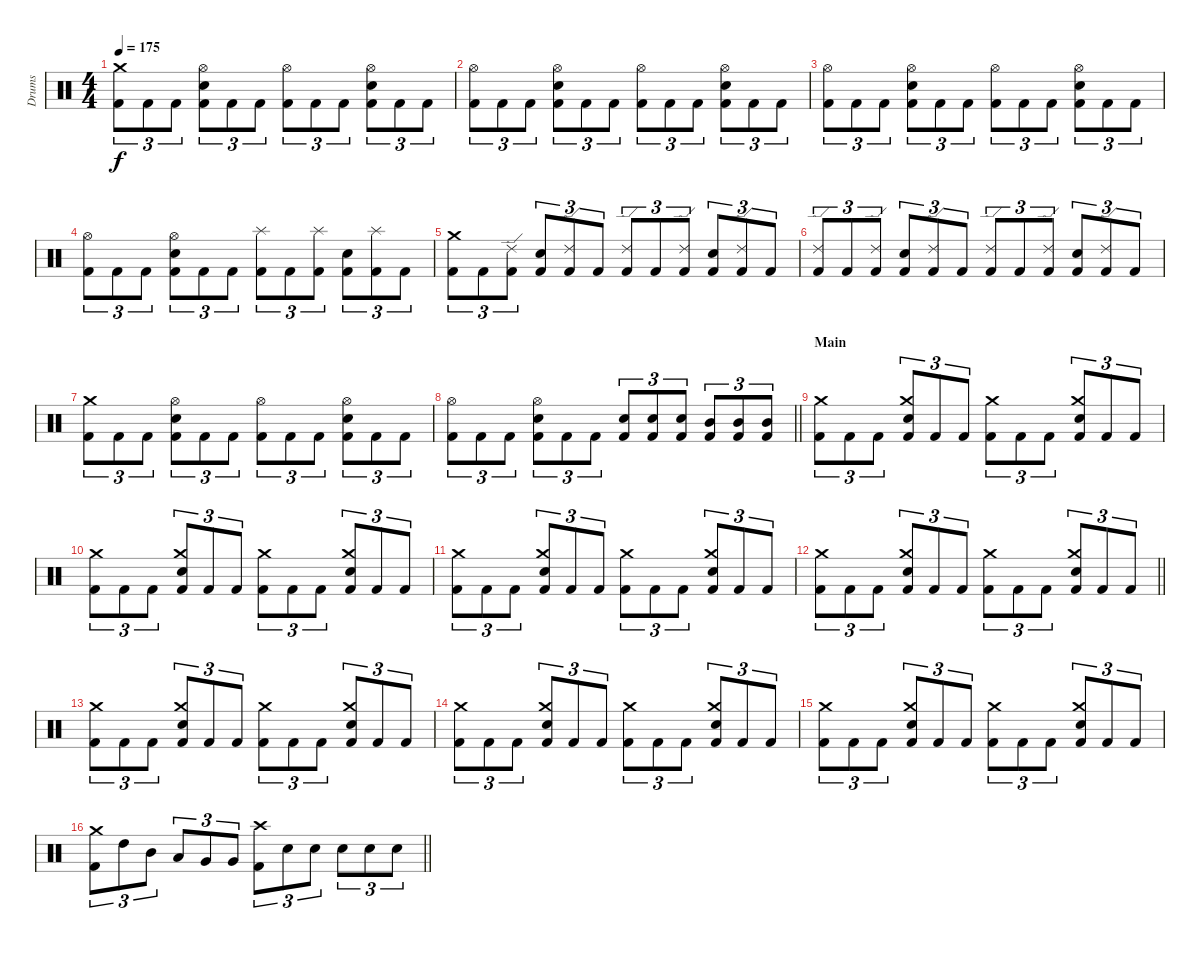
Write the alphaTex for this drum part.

\track ("Drums" "Drums") {instrument percussion}
\staff {score}
\articulation defaults
\ts (4 4)
\section ("" "")
\tempo 175
\clef neutral
\ks c
("Kick (hit) 2" "Crash medium (hit)").8{tu (3 2) dy f} "Kick (hit) 2".8{tu (3 2)} "Kick (hit) 2".8{tu (3 2)} ("Kick (hit) 2" "Snare (hit) 2" "Hi-Hat (open)").8{tu (3 2)} "Kick (hit) 2".8{tu (3 2)} "Kick (hit) 2".8{tu (3 2)} ("Kick (hit) 2" "Hi-Hat (open)").8{tu (3 2)} "Kick (hit) 2".8{tu (3 2)} "Kick (hit) 2".8{tu (3 2)} ("Kick (hit) 2" "Snare (hit) 2" "Hi-Hat (open)").8{tu (3 2)} "Kick (hit) 2".8{tu (3 2)} "Kick (hit) 2".8{tu (3 2)} |
("Kick (hit) 2" "Hi-Hat (open)").8{tu (3 2)} "Kick (hit) 2".8{tu (3 2)} "Kick (hit) 2".8{tu (3 2)} ("Kick (hit) 2" "Snare (hit) 2" "Hi-Hat (open)").8{tu (3 2)} "Kick (hit) 2".8{tu (3 2)} "Kick (hit) 2".8{tu (3 2)} ("Kick (hit) 2" "Hi-Hat (open)").8{tu (3 2)} "Kick (hit) 2".8{tu (3 2)} "Kick (hit) 2".8{tu (3 2)} ("Kick (hit) 2" "Snare (hit) 2" "Hi-Hat (open)").8{tu (3 2)} "Kick (hit) 2".8{tu (3 2)} "Kick (hit) 2".8{tu (3 2)} |
("Kick (hit) 2" "Hi-Hat (open)").8{tu (3 2)} "Kick (hit) 2".8{tu (3 2)} "Kick (hit) 2".8{tu (3 2)} ("Kick (hit) 2" "Snare (hit) 2" "Hi-Hat (open)").8{tu (3 2)} "Kick (hit) 2".8{tu (3 2)} "Kick (hit) 2".8{tu (3 2)} ("Kick (hit) 2" "Hi-Hat (open)").8{tu (3 2)} "Kick (hit) 2".8{tu (3 2)} "Kick (hit) 2".8{tu (3 2)} ("Kick (hit) 2" "Snare (hit) 2" "Hi-Hat (open)").8{tu (3 2)} "Kick (hit) 2".8{tu (3 2)} "Kick (hit) 2".8{tu (3 2)} |
("Kick (hit) 2" "Hi-Hat (open)").8{tu (3 2)} "Kick (hit) 2".8{tu (3 2)} "Kick (hit) 2".8{tu (3 2)} ("Kick (hit) 2" "Snare (hit) 2" "Hi-Hat (open)").8{tu (3 2)} "Kick (hit) 2".8{tu (3 2)} "Kick (hit) 2".8{tu (3 2)} ("Kick (hit) 2" "Splash (hit)").8{tu (3 2)} "Kick (hit) 2".8{tu (3 2)} ("Kick (hit) 2" "Splash (hit)").8{tu (3 2)} ("Kick (hit) 2" "Snare (hit) 2").8{tu (3 2)} ("Kick (hit) 2" "Splash (hit)").8{tu (3 2)} "Kick (hit) 2".8{tu (3 2)} |
("Kick (hit) 2" "Crash medium (hit)").8{tu (3 2)} "Kick (hit) 2".8{tu (3 2)} ("Kick (hit) 2" "Ride (edge) 2").8{tu (3 2)} ("Kick (hit) 2" "Snare (hit) 2").8{tu (3 2)} ("Kick (hit) 2" "Ride (edge) 2").8{tu (3 2)} "Kick (hit) 2".8{tu (3 2)} ("Kick (hit) 2" "Ride (edge) 2").8{tu (3 2)} "Kick (hit) 2".8{tu (3 2)} ("Kick (hit) 2" "Ride (edge) 2").8{tu (3 2)} ("Kick (hit) 2" "Snare (hit) 2").8{tu (3 2)} ("Kick (hit) 2" "Ride (edge) 2").8{tu (3 2)} "Kick (hit) 2".8{tu (3 2)} |
("Kick (hit) 2" "Ride (edge) 2").8{tu (3 2)} "Kick (hit) 2".8{tu (3 2)} ("Kick (hit) 2" "Ride (edge) 2").8{tu (3 2)} ("Kick (hit) 2" "Snare (hit) 2").8{tu (3 2)} ("Kick (hit) 2" "Ride (edge) 2").8{tu (3 2)} "Kick (hit) 2".8{tu (3 2)} ("Kick (hit) 2" "Ride (edge) 2").8{tu (3 2)} "Kick (hit) 2".8{tu (3 2)} ("Kick (hit) 2" "Ride (edge) 2").8{tu (3 2)} ("Kick (hit) 2" "Snare (hit) 2").8{tu (3 2)} ("Kick (hit) 2" "Ride (edge) 2").8{tu (3 2)} "Kick (hit) 2".8{tu (3 2)} |
("Kick (hit) 2" "Crash medium (hit)").8{tu (3 2)} "Kick (hit) 2".8{tu (3 2)} "Kick (hit) 2".8{tu (3 2)} ("Kick (hit) 2" "Snare (hit) 2" "Hi-Hat (open)").8{tu (3 2)} "Kick (hit) 2".8{tu (3 2)} "Kick (hit) 2".8{tu (3 2)} ("Kick (hit) 2" "Hi-Hat (open)").8{tu (3 2)} "Kick (hit) 2".8{tu (3 2)} "Kick (hit) 2".8{tu (3 2)} ("Kick (hit) 2" "Snare (hit) 2" "Hi-Hat (open)").8{tu (3 2)} "Kick (hit) 2".8{tu (3 2)} "Kick (hit) 2".8{tu (3 2)} |
\barLineRight lightlight
("Kick (hit) 2" "Hi-Hat (open)").8{tu (3 2)} "Kick (hit) 2".8{tu (3 2)} "Kick (hit) 2".8{tu (3 2)} ("Kick (hit) 2" "Snare (hit) 2" "Hi-Hat (open)").8{tu (3 2)} "Kick (hit) 2".8{tu (3 2)} "Kick (hit) 2".8{tu (3 2)} ("Kick (hit) 2" "Snare (hit) 2").8{tu (3 2)} ("Kick (hit) 2" "Snare (hit) 2").8{tu (3 2)} ("Kick (hit) 2" "Snare (hit) 2").8{tu (3 2)} ("Kick (hit) 2" "Mid Tom (hit)").8{tu (3 2)} ("Kick (hit) 2" "Mid Tom (hit)").8{tu (3 2)} ("Kick (hit) 2" "Mid Tom (hit)").8{tu (3 2)} |
\section ("" "Main")
("Kick (hit) 2" "Crash medium (hit)").8{tu (3 2)} "Kick (hit) 2".8{tu (3 2)} "Kick (hit) 2".8{tu (3 2)} ("Kick (hit) 2" "Snare (hit) 2" "Crash medium (hit)").8{tu (3 2)} "Kick (hit) 2".8{tu (3 2)} "Kick (hit) 2".8{tu (3 2)} ("Kick (hit) 2" "Crash medium (hit)").8{tu (3 2)} "Kick (hit) 2".8{tu (3 2)} "Kick (hit) 2".8{tu (3 2)} ("Kick (hit) 2" "Snare (hit) 2" "Crash medium (hit)").8{tu (3 2)} "Kick (hit) 2".8{tu (3 2)} "Kick (hit) 2".8{tu (3 2)} |
("Kick (hit) 2" "Crash medium (hit)").8{tu (3 2)} "Kick (hit) 2".8{tu (3 2)} "Kick (hit) 2".8{tu (3 2)} ("Kick (hit) 2" "Snare (hit) 2" "Crash medium (hit)").8{tu (3 2)} "Kick (hit) 2".8{tu (3 2)} "Kick (hit) 2".8{tu (3 2)} ("Kick (hit) 2" "Crash medium (hit)").8{tu (3 2)} "Kick (hit) 2".8{tu (3 2)} "Kick (hit) 2".8{tu (3 2)} ("Kick (hit) 2" "Snare (hit) 2" "Crash medium (hit)").8{tu (3 2)} "Kick (hit) 2".8{tu (3 2)} "Kick (hit) 2".8{tu (3 2)} |
("Kick (hit) 2" "Crash medium (hit)").8{tu (3 2)} "Kick (hit) 2".8{tu (3 2)} "Kick (hit) 2".8{tu (3 2)} ("Kick (hit) 2" "Snare (hit) 2" "Crash medium (hit)").8{tu (3 2)} "Kick (hit) 2".8{tu (3 2)} "Kick (hit) 2".8{tu (3 2)} ("Kick (hit) 2" "Crash medium (hit)").8{tu (3 2)} "Kick (hit) 2".8{tu (3 2)} "Kick (hit) 2".8{tu (3 2)} ("Kick (hit) 2" "Snare (hit) 2" "Crash medium (hit)").8{tu (3 2)} "Kick (hit) 2".8{tu (3 2)} "Kick (hit) 2".8{tu (3 2)} |
\barLineRight lightlight
("Kick (hit) 2" "Crash medium (hit)").8{tu (3 2)} "Kick (hit) 2".8{tu (3 2)} "Kick (hit) 2".8{tu (3 2)} ("Kick (hit) 2" "Snare (hit) 2" "Crash medium (hit)").8{tu (3 2)} "Kick (hit) 2".8{tu (3 2)} "Kick (hit) 2".8{tu (3 2)} ("Kick (hit) 2" "Crash medium (hit)").8{tu (3 2)} "Kick (hit) 2".8{tu (3 2)} "Kick (hit) 2".8{tu (3 2)} ("Kick (hit) 2" "Snare (hit) 2" "Crash medium (hit)").8{tu (3 2)} "Kick (hit) 2".8{tu (3 2)} "Kick (hit) 2".8{tu (3 2)} |
("Kick (hit) 2" "Crash medium (hit)").8{tu (3 2)} "Kick (hit) 2".8{tu (3 2)} "Kick (hit) 2".8{tu (3 2)} ("Kick (hit) 2" "Snare (hit) 2" "Crash medium (hit)").8{tu (3 2)} "Kick (hit) 2".8{tu (3 2)} "Kick (hit) 2".8{tu (3 2)} ("Kick (hit) 2" "Crash medium (hit)").8{tu (3 2)} "Kick (hit) 2".8{tu (3 2)} "Kick (hit) 2".8{tu (3 2)} ("Kick (hit) 2" "Snare (hit) 2" "Crash medium (hit)").8{tu (3 2)} "Kick (hit) 2".8{tu (3 2)} "Kick (hit) 2".8{tu (3 2)} |
("Kick (hit) 2" "Crash medium (hit)").8{tu (3 2)} "Kick (hit) 2".8{tu (3 2)} "Kick (hit) 2".8{tu (3 2)} ("Kick (hit) 2" "Snare (hit) 2" "Crash medium (hit)").8{tu (3 2)} "Kick (hit) 2".8{tu (3 2)} "Kick (hit) 2".8{tu (3 2)} ("Kick (hit) 2" "Crash medium (hit)").8{tu (3 2)} "Kick (hit) 2".8{tu (3 2)} "Kick (hit) 2".8{tu (3 2)} ("Kick (hit) 2" "Snare (hit) 2" "Crash medium (hit)").8{tu (3 2)} "Kick (hit) 2".8{tu (3 2)} "Kick (hit) 2".8{tu (3 2)} |
("Kick (hit) 2" "Crash medium (hit)").8{tu (3 2)} "Kick (hit) 2".8{tu (3 2)} "Kick (hit) 2".8{tu (3 2)} ("Kick (hit) 2" "Snare (hit) 2" "Crash medium (hit)").8{tu (3 2)} "Kick (hit) 2".8{tu (3 2)} "Kick (hit) 2".8{tu (3 2)} ("Kick (hit) 2" "Crash medium (hit)").8{tu (3 2)} "Kick (hit) 2".8{tu (3 2)} "Kick (hit) 2".8{tu (3 2)} ("Kick (hit) 2" "Snare (hit) 2" "Crash medium (hit)").8{tu (3 2)} "Kick (hit) 2".8{tu (3 2)} "Kick (hit) 2".8{tu (3 2)} |
\barLineRight lightlight
("Kick (hit) 2" "Crash medium (hit)").8{tu (3 2)} "High Tom (hit)".8{tu (3 2)} "Mid Tom (hit)".8{tu (3 2)} "Low Tom (hit)".8{tu (3 2)} "Very Low Tom (hit)".8{tu (3 2)} "Very Low Tom (hit)".8{tu (3 2)} ("Kick (hit) 2" "Crash high (hit)").8{tu (3 2)} "Snare (hit) 2".8{tu (3 2)} "Snare (hit) 2".8{tu (3 2)} "Snare (hit) 2".8{tu (3 2)} "Snare (hit) 2".8{tu (3 2)} "Snare (hit) 2".8{tu (3 2)}
